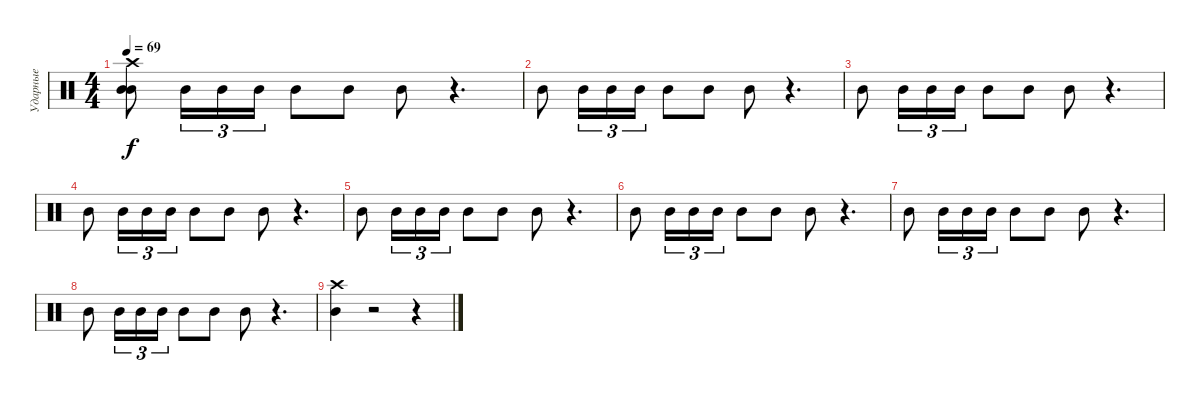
\track ("Ударные" "Ударные") {instrument percussion}
\staff {score}
\articulation defaults
\ts (4 4)
\tempo 69
\clef neutral
\ks c
("Mid Tom (hit)" "Crash high (hit)" "Mid Tom (hit)").8{dy f} "Mid Tom (hit)".16{tu (3 2)} "Mid Tom (hit)".16{tu (3 2)} "Mid Tom (hit)".16{tu (3 2)} "Mid Tom (hit)".8 "Mid Tom (hit)".8 "Mid Tom (hit)".8 r.4{d} |
"Mid Tom (hit)".8 "Mid Tom (hit)".16{tu (3 2)} "Mid Tom (hit)".16{tu (3 2)} "Mid Tom (hit)".16{tu (3 2)} "Mid Tom (hit)".8 "Mid Tom (hit)".8 "Mid Tom (hit)".8 r.4{d} |
"Mid Tom (hit)".8 "Mid Tom (hit)".16{tu (3 2)} "Mid Tom (hit)".16{tu (3 2)} "Mid Tom (hit)".16{tu (3 2)} "Mid Tom (hit)".8 "Mid Tom (hit)".8 "Mid Tom (hit)".8 r.4{d} |
"Mid Tom (hit)".8 "Mid Tom (hit)".16{tu (3 2)} "Mid Tom (hit)".16{tu (3 2)} "Mid Tom (hit)".16{tu (3 2)} "Mid Tom (hit)".8 "Mid Tom (hit)".8 "Mid Tom (hit)".8 r.4{d} |
"Mid Tom (hit)".8 "Mid Tom (hit)".16{tu (3 2)} "Mid Tom (hit)".16{tu (3 2)} "Mid Tom (hit)".16{tu (3 2)} "Mid Tom (hit)".8 "Mid Tom (hit)".8 "Mid Tom (hit)".8 r.4{d} |
"Mid Tom (hit)".8 "Mid Tom (hit)".16{tu (3 2)} "Mid Tom (hit)".16{tu (3 2)} "Mid Tom (hit)".16{tu (3 2)} "Mid Tom (hit)".8 "Mid Tom (hit)".8 "Mid Tom (hit)".8 r.4{d} |
"Mid Tom (hit)".8 "Mid Tom (hit)".16{tu (3 2)} "Mid Tom (hit)".16{tu (3 2)} "Mid Tom (hit)".16{tu (3 2)} "Mid Tom (hit)".8 "Mid Tom (hit)".8 "Mid Tom (hit)".8 r.4{d} |
"Mid Tom (hit)".8 "Mid Tom (hit)".16{tu (3 2)} "Mid Tom (hit)".16{tu (3 2)} "Mid Tom (hit)".16{tu (3 2)} "Mid Tom (hit)".8 "Mid Tom (hit)".8 "Mid Tom (hit)".8 r.4{d} |
("Mid Tom (hit)" "Crash high (hit)").4 r.2 r.4
